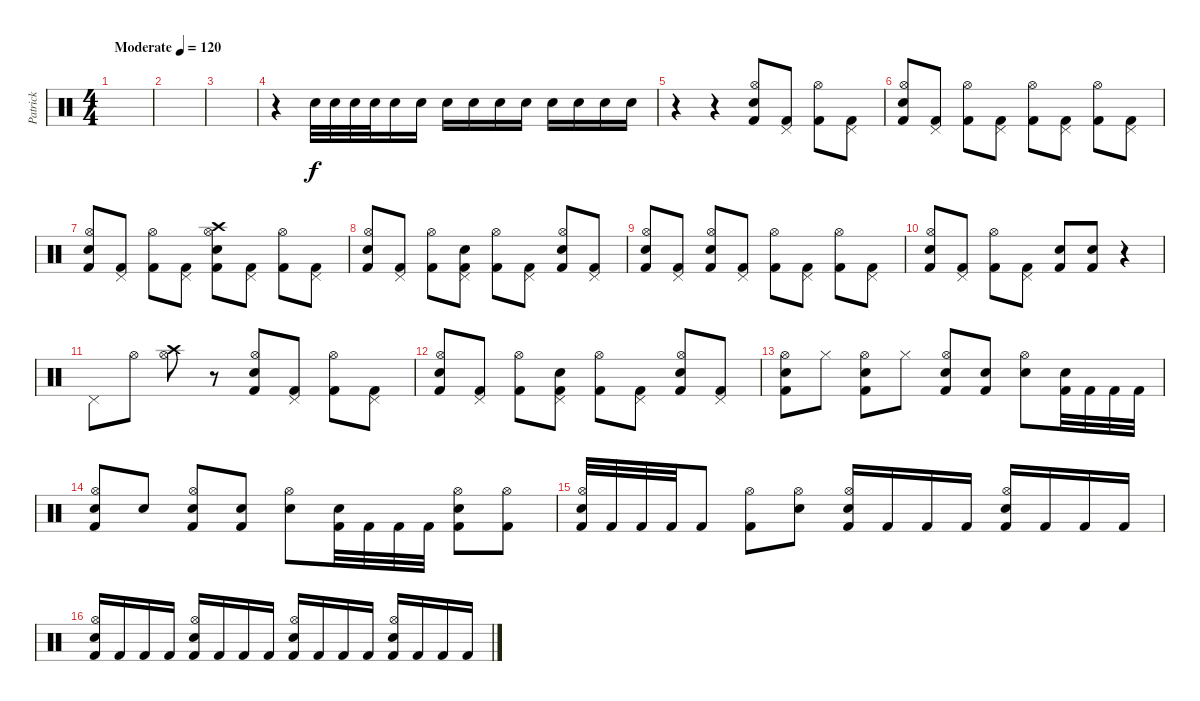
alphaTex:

\track ("Patrick" "Patrick") {instrument percussion}
\staff {score}
\articulation defaults
\ts (4 4)
\tempo (120 "Moderate")
\clef neutral
\ks c
|
|
|
r.4 "Snare (hit) 2".32 "Snare (hit) 2".32 "Snare (hit) 2".32 "Snare (hit) 2".32 "Snare (hit) 2".16 "Snare (hit) 2".16 "Snare (hit) 2".16 "Snare (hit) 2".16 "Snare (hit) 2".16 "Snare (hit) 2".16 "Snare (hit) 2".16 "Snare (hit) 2".16 "Snare (hit) 2".16 "Snare (hit) 2".16 |
r.4 r.4 ("Hi-Hat (open)" "Kick (hit) 2" "Snare (hit) 2").8 ("Pedal Hi-Hat (hit)" "Kick (hit) 2").8 ("Hi-Hat (open)" "Kick (hit) 2").8 ("Pedal Hi-Hat (hit)" "Kick (hit) 2").8 |
("Hi-Hat (open)" "Kick (hit) 2" "Snare (hit) 2").8 ("Pedal Hi-Hat (hit)" "Kick (hit) 2").8 ("Hi-Hat (open)" "Kick (hit) 2").8 ("Pedal Hi-Hat (hit)" "Kick (hit) 2").8 ("Hi-Hat (open)" "Kick (hit) 2").8 ("Pedal Hi-Hat (hit)" "Kick (hit) 2").8 ("Hi-Hat (open)" "Kick (hit) 2").8 ("Pedal Hi-Hat (hit)" "Kick (hit) 2").8 |
("Hi-Hat (open)" "Kick (hit) 2" "Snare (hit) 2").8 ("Pedal Hi-Hat (hit)" "Kick (hit) 2").8 ("Hi-Hat (open)" "Kick (hit) 2").8 ("Pedal Hi-Hat (hit)" "Kick (hit) 2").8 ("Hi-Hat (open)" "Kick (hit) 2" "Snare (hit) 2" "Crash high (hit)").8 ("Pedal Hi-Hat (hit)" "Kick (hit) 2").8 ("Hi-Hat (open)" "Kick (hit) 2").8 ("Pedal Hi-Hat (hit)" "Kick (hit) 2").8 |
("Hi-Hat (open)" "Kick (hit) 2" "Snare (hit) 2").8 ("Pedal Hi-Hat (hit)" "Kick (hit) 2").8 ("Hi-Hat (open)" "Kick (hit) 2").8 ("Pedal Hi-Hat (hit)" "Kick (hit) 2" "Snare (hit) 2").8 ("Hi-Hat (open)" "Kick (hit) 2").8 ("Pedal Hi-Hat (hit)" "Kick (hit) 2").8 ("Hi-Hat (open)" "Kick (hit) 2" "Snare (hit) 2").8 ("Pedal Hi-Hat (hit)" "Kick (hit) 2").8 |
("Hi-Hat (open)" "Kick (hit) 2" "Snare (hit) 2").8 ("Pedal Hi-Hat (hit)" "Kick (hit) 2").8 ("Hi-Hat (open)" "Kick (hit) 2" "Snare (hit) 2").8 ("Pedal Hi-Hat (hit)" "Kick (hit) 2").8 ("Hi-Hat (open)" "Kick (hit) 2").8 ("Pedal Hi-Hat (hit)" "Kick (hit) 2").8 ("Hi-Hat (open)" "Kick (hit) 2").8 ("Pedal Hi-Hat (hit)" "Kick (hit) 2").8 |
("Hi-Hat (open)" "Kick (hit) 2" "Snare (hit) 2").8 ("Pedal Hi-Hat (hit)" "Kick (hit) 2").8 ("Hi-Hat (open)" "Kick (hit) 2").8 ("Pedal Hi-Hat (hit)" "Kick (hit) 2").8 ("Snare (hit) 2" "Kick (hit) 2").8 ("Snare (hit) 2" "Kick (hit) 2").8 r.4 |
"Pedal Hi-Hat (hit)".8 "Hi-Hat (open)".8 ("Crash high (hit)" "Hi-Hat (open)").8 r.8 ("Hi-Hat (open)" "Kick (hit) 2" "Snare (hit) 2").8 ("Pedal Hi-Hat (hit)" "Kick (hit) 2").8 ("Hi-Hat (open)" "Kick (hit) 2").8 ("Pedal Hi-Hat (hit)" "Kick (hit) 2").8 |
("Hi-Hat (open)" "Kick (hit) 2" "Snare (hit) 2").8 ("Pedal Hi-Hat (hit)" "Kick (hit) 2").8 ("Hi-Hat (open)" "Kick (hit) 2").8 ("Pedal Hi-Hat (hit)" "Kick (hit) 2" "Snare (hit) 2").8 ("Hi-Hat (open)" "Kick (hit) 2").8 ("Pedal Hi-Hat (hit)" "Kick (hit) 2").8 ("Hi-Hat (open)" "Kick (hit) 2" "Snare (hit) 2").8 ("Pedal Hi-Hat (hit)" "Kick (hit) 2").8 |
("Hi-Hat (open)" "Kick (hit) 2" "Snare (hit) 2").8 "Hi-Hat (closed)".8 ("Hi-Hat (open)" "Kick (hit) 2" "Snare (hit) 2").8 "Hi-Hat (closed)".8 ("Hi-Hat (open)" "Kick (hit) 2" "Snare (hit) 2").8 ("Kick (hit) 2" "Snare (hit) 2").8 ("Hi-Hat (open)" "Snare (hit) 2").8 ("Kick (hit) 2" "Snare (hit) 2").32 "Kick (hit) 2".32 "Kick (hit) 2".32 "Kick (hit) 2".32 |
("Hi-Hat (open)" "Kick (hit) 2" "Snare (hit) 2").8 "Snare (hit) 2".8 ("Hi-Hat (open)" "Kick (hit) 2" "Snare (hit) 2").8 ("Kick (hit) 2" "Snare (hit) 2").8 ("Hi-Hat (open)" "Snare (hit) 2").8 ("Kick (hit) 2" "Snare (hit) 2").32 "Kick (hit) 2".32 "Kick (hit) 2".32 "Kick (hit) 2".32 ("Hi-Hat (open)" "Kick (hit) 2" "Snare (hit) 2").8 ("Hi-Hat (open)" "Kick (hit) 2").8 |
("Hi-Hat (open)" "Kick (hit) 2" "Snare (hit) 2").32 "Kick (hit) 2".32 "Kick (hit) 2".32 "Kick (hit) 2".32 "Kick (hit) 2".8 ("Hi-Hat (open)" "Kick (hit) 2").8 ("Hi-Hat (open)" "Snare (hit) 2").8 ("Snare (hit) 2" "Kick (hit) 2" "Hi-Hat (open)").16 "Kick (hit) 2".16 "Kick (hit) 2".16 "Kick (hit) 2".16 ("Snare (hit) 2" "Kick (hit) 2" "Hi-Hat (open)").16 "Kick (hit) 2".16 "Kick (hit) 2".16 "Kick (hit) 2".16 |
("Snare (hit) 2" "Kick (hit) 2" "Hi-Hat (open)").16 "Kick (hit) 2".16 "Kick (hit) 2".16 "Kick (hit) 2".16 ("Snare (hit) 2" "Kick (hit) 2" "Hi-Hat (open)").16 "Kick (hit) 2".16 "Kick (hit) 2".16 "Kick (hit) 2".16 ("Snare (hit) 2" "Kick (hit) 2" "Hi-Hat (open)").16 "Kick (hit) 2".16 "Kick (hit) 2".16 "Kick (hit) 2".16 ("Snare (hit) 2" "Kick (hit) 2" "Hi-Hat (open)").16 "Kick (hit) 2".16 "Kick (hit) 2".16 "Kick (hit) 2".16
